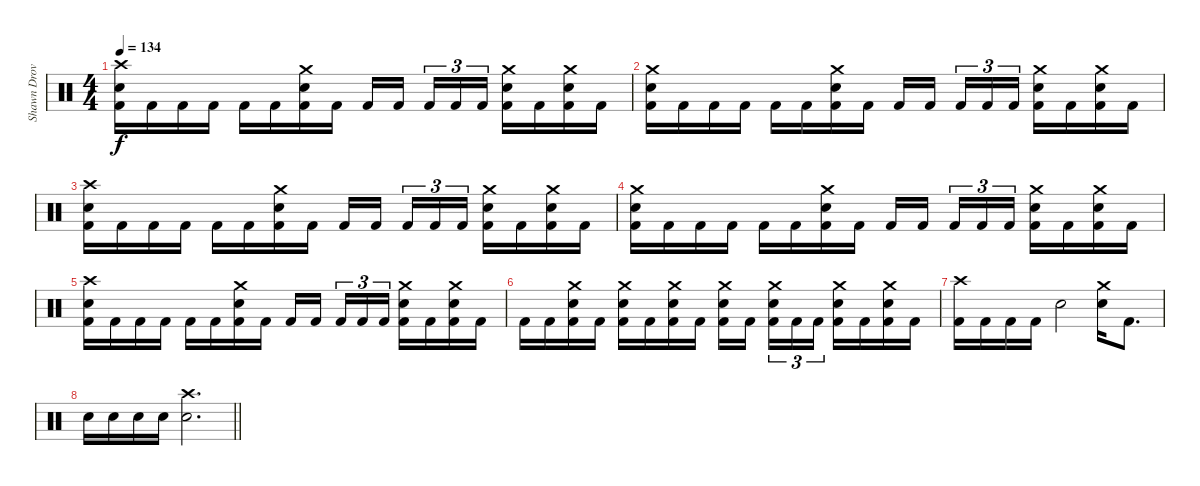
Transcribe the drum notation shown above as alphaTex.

\track ("Shawn Drover" "Shawn Drov") {instrument percussion}
\staff {score}
\articulation defaults
\ts (4 4)
\tempo 134
\clef neutral
\ks c
("Crash high (hit)" "Snare (hit) 2" "Kick (hit) 2").16{dy f} "Kick (hit) 2".16 "Kick (hit) 2".16 "Kick (hit) 2".16 "Kick (hit) 2".16 "Kick (hit) 2".16 ("Crash medium (hit)" "Snare (hit) 2" "Kick (hit) 2").16 "Kick (hit) 2".16 "Kick (hit) 2".16 "Kick (hit) 2".16{beam splitsecondary} "Kick (hit) 2".16{tu (3 2)} "Kick (hit) 2".16{tu (3 2)} "Kick (hit) 2".16{tu (3 2)} ("Crash medium (hit)" "Snare (hit) 2" "Kick (hit) 2").16 "Kick (hit) 2".16 ("Crash medium (hit)" "Snare (hit) 2" "Kick (hit) 2").16 "Kick (hit) 2".16 |
("Crash medium (hit)" "Snare (hit) 2" "Kick (hit) 2").16 "Kick (hit) 2".16 "Kick (hit) 2".16 "Kick (hit) 2".16 "Kick (hit) 2".16 "Kick (hit) 2".16 ("Crash medium (hit)" "Snare (hit) 2" "Kick (hit) 2").16 "Kick (hit) 2".16 "Kick (hit) 2".16 "Kick (hit) 2".16{beam splitsecondary} "Kick (hit) 2".16{tu (3 2)} "Kick (hit) 2".16{tu (3 2)} "Kick (hit) 2".16{tu (3 2)} ("Crash medium (hit)" "Snare (hit) 2" "Kick (hit) 2").16 "Kick (hit) 2".16 ("Crash medium (hit)" "Snare (hit) 2" "Kick (hit) 2").16 "Kick (hit) 2".16 |
("Crash high (hit)" "Snare (hit) 2" "Kick (hit) 2").16 "Kick (hit) 2".16 "Kick (hit) 2".16 "Kick (hit) 2".16 "Kick (hit) 2".16 "Kick (hit) 2".16 ("Crash medium (hit)" "Snare (hit) 2" "Kick (hit) 2").16 "Kick (hit) 2".16 "Kick (hit) 2".16 "Kick (hit) 2".16{beam splitsecondary} "Kick (hit) 2".16{tu (3 2)} "Kick (hit) 2".16{tu (3 2)} "Kick (hit) 2".16{tu (3 2)} ("Crash medium (hit)" "Snare (hit) 2" "Kick (hit) 2").16 "Kick (hit) 2".16 ("Crash medium (hit)" "Snare (hit) 2" "Kick (hit) 2").16 "Kick (hit) 2".16 |
("Crash medium (hit)" "Snare (hit) 2" "Kick (hit) 2").16 "Kick (hit) 2".16 "Kick (hit) 2".16 "Kick (hit) 2".16 "Kick (hit) 2".16 "Kick (hit) 2".16 ("Crash medium (hit)" "Snare (hit) 2" "Kick (hit) 2").16 "Kick (hit) 2".16 "Kick (hit) 2".16 "Kick (hit) 2".16{beam splitsecondary} "Kick (hit) 2".16{tu (3 2)} "Kick (hit) 2".16{tu (3 2)} "Kick (hit) 2".16{tu (3 2)} ("Crash medium (hit)" "Snare (hit) 2" "Kick (hit) 2").16 "Kick (hit) 2".16 ("Crash medium (hit)" "Snare (hit) 2" "Kick (hit) 2").16 "Kick (hit) 2".16 |
("Crash high (hit)" "Snare (hit) 2" "Kick (hit) 2").16 "Kick (hit) 2".16 "Kick (hit) 2".16 "Kick (hit) 2".16 "Kick (hit) 2".16 "Kick (hit) 2".16 ("Crash medium (hit)" "Snare (hit) 2" "Kick (hit) 2").16 "Kick (hit) 2".16 "Kick (hit) 2".16 "Kick (hit) 2".16{beam splitsecondary} "Kick (hit) 2".16{tu (3 2)} "Kick (hit) 2".16{tu (3 2)} "Kick (hit) 2".16{tu (3 2)} ("Crash medium (hit)" "Snare (hit) 2" "Kick (hit) 2").16 "Kick (hit) 2".16 ("Crash medium (hit)" "Snare (hit) 2" "Kick (hit) 2").16 "Kick (hit) 2".16 |
"Kick (hit) 2".16 "Kick (hit) 2".16 ("Crash medium (hit)" "Snare (hit) 2" "Kick (hit) 2").16 "Kick (hit) 2".16 ("Crash medium (hit)" "Snare (hit) 2" "Kick (hit) 2").16 "Kick (hit) 2".16 ("Crash medium (hit)" "Snare (hit) 2" "Kick (hit) 2").16 "Kick (hit) 2".16 ("Crash medium (hit)" "Snare (hit) 2" "Kick (hit) 2").16 "Kick (hit) 2".16{beam splitsecondary} ("Crash medium (hit)" "Snare (hit) 2" "Kick (hit) 2").16{tu (3 2)} "Kick (hit) 2".16{tu (3 2)} "Kick (hit) 2".16{tu (3 2)} ("Crash medium (hit)" "Snare (hit) 2" "Kick (hit) 2").16 "Kick (hit) 2".16 ("Crash medium (hit)" "Snare (hit) 2" "Kick (hit) 2").16 "Kick (hit) 2".16 |
("Crash high (hit)" "Kick (hit) 2").16 "Kick (hit) 2".16 "Kick (hit) 2".16 "Kick (hit) 2".16 "Snare (hit) 2".2 ("Crash medium (hit)" "Snare (hit) 2").16 "Kick (hit) 2".8{d} |
\barLineRight lightlight "Snare (hit) 2".16 "Snare (hit) 2".16 "Snare (hit) 2".16 "Snare (hit) 2".16
("Crash high (hit)" "Snare (hit) 2").2{d}
